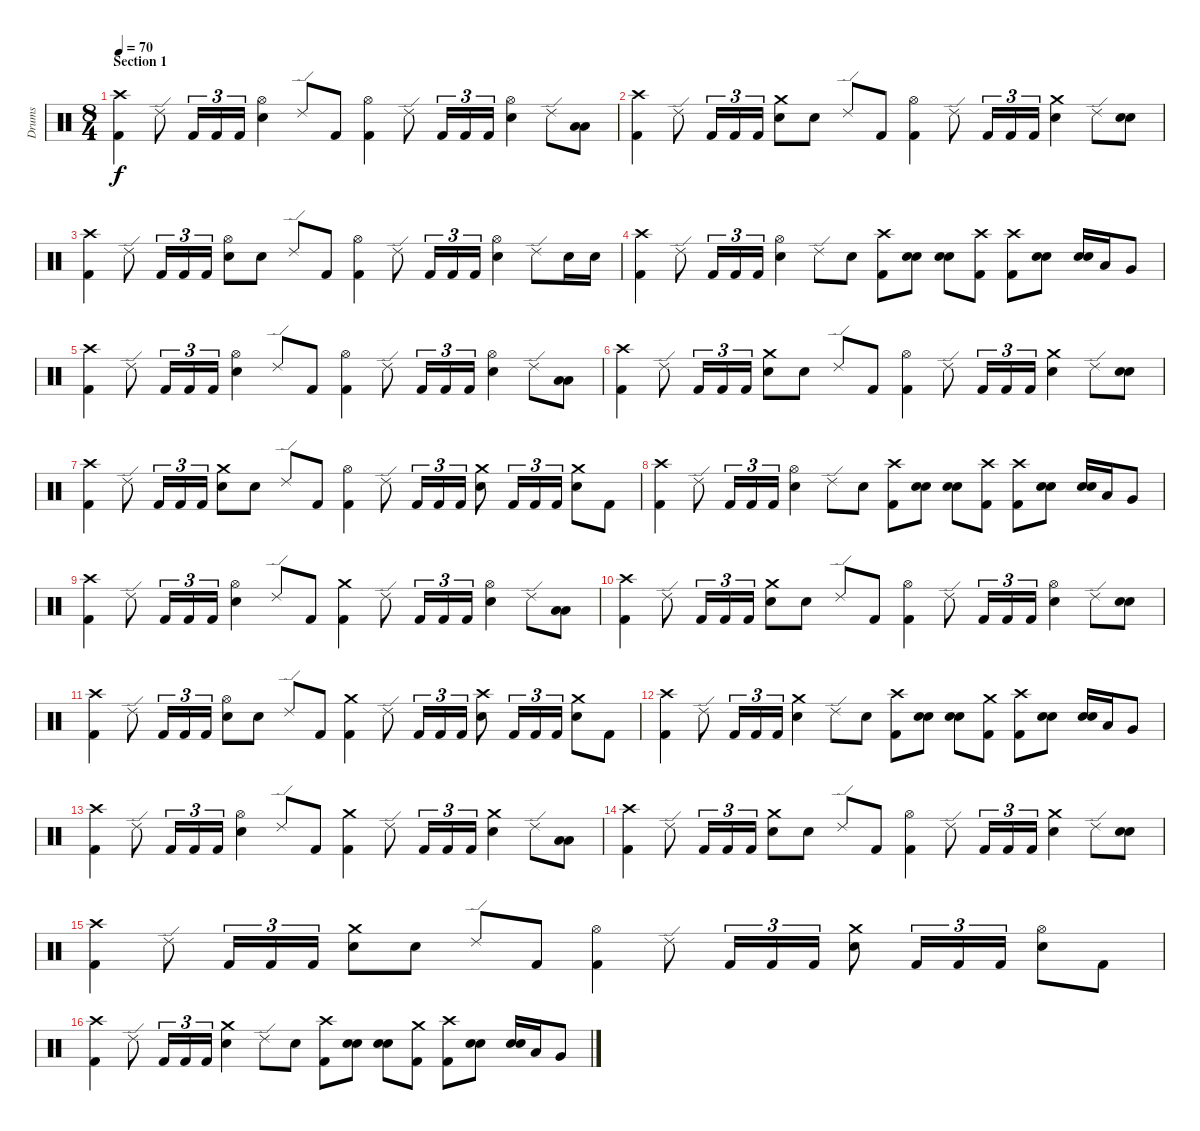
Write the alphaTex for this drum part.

\track ("Drums" "Drums") {instrument percussion}
\staff {score}
\articulation defaults
\ts (8 4)
\section ("" "Section 1")
\tempo 70
\clef neutral
\ks c
("Crash high (hit)" "Kick (hit) 2").4{dy f} "Ride (edge) 2".8 "Kick (hit) 2".16{tu (3 2)} "Kick (hit) 2".16{tu (3 2)} "Kick (hit) 2".16{tu (3 2)} ("Hi-Hat (open)" "Electric Snare (hit)").4 "Ride (edge) 2".8 "Kick (hit) 2".8 ("Hi-Hat (open)" "Kick (hit) 2").4 "Ride (edge) 2".8 "Kick (hit) 2".16{tu (3 2)} "Kick (hit) 2".16{tu (3 2)} "Kick (hit) 2".16{tu (3 2)} ("Hi-Hat (open)" "Electric Snare (hit)").4 "Ride (edge) 2".8 ("Low Tom (hit)" "Low Tom (hit)").8{bu 60} |
("Crash high (hit)" "Kick (hit) 2").4 "Ride (edge) 2".8 "Kick (hit) 2".16{tu (3 2)} "Kick (hit) 2".16{tu (3 2)} "Kick (hit) 2".16{tu (3 2)} ("Crash medium (hit)" "Electric Snare (hit)").8 "Electric Snare (hit)".8 "Ride (edge) 2".8 "Kick (hit) 2".8 ("Hi-Hat (open)" "Kick (hit) 2").4 "Ride (edge) 2".8 "Kick (hit) 2".16{tu (3 2)} "Kick (hit) 2".16{tu (3 2)} "Kick (hit) 2".16{tu (3 2)} ("Crash medium (hit)" "Electric Snare (hit)").4 "Ride (edge) 2".8 ("Electric Snare (hit)" "Electric Snare (hit)").8{bu 60} |
("Crash high (hit)" "Kick (hit) 2").4 "Ride (edge) 2".8 "Kick (hit) 2".16{tu (3 2)} "Kick (hit) 2".16{tu (3 2)} "Kick (hit) 2".16{tu (3 2)} ("Hi-Hat (open)" "Electric Snare (hit)").8 "Electric Snare (hit)".8 "Ride (edge) 2".8 "Kick (hit) 2".8 ("Hi-Hat (open)" "Kick (hit) 2").4 "Ride (edge) 2".8 "Kick (hit) 2".16{tu (3 2)} "Kick (hit) 2".16{tu (3 2)} "Kick (hit) 2".16{tu (3 2)} ("Hi-Hat (open)" "Electric Snare (hit)").4 "Ride (edge) 2".8 "Electric Snare (hit)".16 "Electric Snare (hit)".16 |
("Crash high (hit)" "Kick (hit) 2").4 "Ride (edge) 2".8 "Kick (hit) 2".16{tu (3 2)} "Kick (hit) 2".16{tu (3 2)} "Kick (hit) 2".16{tu (3 2)} ("Hi-Hat (open)" "Electric Snare (hit)").4 "Ride (edge) 2".8 "Electric Snare (hit)".8 ("Crash high (hit)" "Kick (hit) 2").8 ("Electric Snare (hit)" "Electric Snare (hit)").8{bu 60} ("Electric Snare (hit)" "Electric Snare (hit)").8{bu 60} ("Crash high (hit)" "Kick (hit) 2").8 ("Crash high (hit)" "Kick (hit) 2").8 ("Electric Snare (hit)" "Electric Snare (hit)").8{bu 60} ("Electric Snare (hit)" "Electric Snare (hit)").16{bu 60} "Low Tom (hit)".16 "Very Low Tom (hit)".8 |
("Crash high (hit)" "Kick (hit) 2").4 "Ride (edge) 2".8 "Kick (hit) 2".16{tu (3 2)} "Kick (hit) 2".16{tu (3 2)} "Kick (hit) 2".16{tu (3 2)} ("Hi-Hat (open)" "Electric Snare (hit)").4 "Ride (edge) 2".8 "Kick (hit) 2".8 ("Hi-Hat (open)" "Kick (hit) 2").4 "Ride (edge) 2".8 "Kick (hit) 2".16{tu (3 2)} "Kick (hit) 2".16{tu (3 2)} "Kick (hit) 2".16{tu (3 2)} ("Hi-Hat (open)" "Electric Snare (hit)").4 "Ride (edge) 2".8 ("Low Tom (hit)" "Low Tom (hit)").8{bu 60} |
("Crash high (hit)" "Kick (hit) 2").4 "Ride (edge) 2".8 "Kick (hit) 2".16{tu (3 2)} "Kick (hit) 2".16{tu (3 2)} "Kick (hit) 2".16{tu (3 2)} ("Crash medium (hit)" "Electric Snare (hit)").8 "Electric Snare (hit)".8 "Ride (edge) 2".8 "Kick (hit) 2".8 ("Hi-Hat (open)" "Kick (hit) 2").4 "Ride (edge) 2".8 "Kick (hit) 2".16{tu (3 2)} "Kick (hit) 2".16{tu (3 2)} "Kick (hit) 2".16{tu (3 2)} ("Crash medium (hit)" "Electric Snare (hit)").4 "Ride (edge) 2".8 ("Electric Snare (hit)" "Electric Snare (hit)").8{bu 60} |
("Crash high (hit)" "Kick (hit) 2").4 "Ride (edge) 2".8 "Kick (hit) 2".16{tu (3 2)} "Kick (hit) 2".16{tu (3 2)} "Kick (hit) 2".16{tu (3 2)} ("Crash medium (hit)" "Electric Snare (hit)").8 "Electric Snare (hit)".8 "Ride (edge) 2".8 "Kick (hit) 2".8 ("Hi-Hat (open)" "Kick (hit) 2").4 "Ride (edge) 2".8 "Kick (hit) 2".16{tu (3 2)} "Kick (hit) 2".16{tu (3 2)} "Kick (hit) 2".16{tu (3 2)} ("Crash medium (hit)" "Electric Snare (hit)").8 "Kick (hit) 2".16{tu (3 2)} "Kick (hit) 2".16{tu (3 2)} "Kick (hit) 2".16{tu (3 2)} ("Crash medium (hit)" "Electric Snare (hit)").8 "Kick (hit) 2".8 |
("Crash high (hit)" "Kick (hit) 2").4 "Ride (edge) 2".8 "Kick (hit) 2".16{tu (3 2)} "Kick (hit) 2".16{tu (3 2)} "Kick (hit) 2".16{tu (3 2)} ("Hi-Hat (open)" "Electric Snare (hit)").4 "Ride (edge) 2".8 "Electric Snare (hit)".8 ("Crash high (hit)" "Kick (hit) 2").8 ("Electric Snare (hit)" "Electric Snare (hit)").8{bu 60} ("Electric Snare (hit)" "Electric Snare (hit)").8{bu 60} ("Crash high (hit)" "Kick (hit) 2").8 ("Crash high (hit)" "Kick (hit) 2").8 ("Electric Snare (hit)" "Electric Snare (hit)").8{bu 60} ("Electric Snare (hit)" "Electric Snare (hit)").16{bu 60} "Low Tom (hit)".16 "Very Low Tom (hit)".8 |
("Crash high (hit)" "Kick (hit) 2").4 "Ride (edge) 2".8 "Kick (hit) 2".16{tu (3 2)} "Kick (hit) 2".16{tu (3 2)} "Kick (hit) 2".16{tu (3 2)} ("Hi-Hat (open)" "Electric Snare (hit)").4 "Ride (edge) 2".8 "Kick (hit) 2".8 ("Crash medium (hit)" "Kick (hit) 2").4 "Ride (edge) 2".8 "Kick (hit) 2".16{tu (3 2)} "Kick (hit) 2".16{tu (3 2)} "Kick (hit) 2".16{tu (3 2)} ("Hi-Hat (open)" "Electric Snare (hit)").4 "Ride (edge) 2".8 ("Low Tom (hit)" "Low Tom (hit)").8{bu 60} |
("Crash high (hit)" "Kick (hit) 2").4 "Ride (edge) 2".8 "Kick (hit) 2".16{tu (3 2)} "Kick (hit) 2".16{tu (3 2)} "Kick (hit) 2".16{tu (3 2)} ("Crash medium (hit)" "Electric Snare (hit)").8 "Electric Snare (hit)".8 "Ride (edge) 2".8 "Kick (hit) 2".8 ("Hi-Hat (open)" "Kick (hit) 2").4 "Ride (edge) 2".8 "Kick (hit) 2".16{tu (3 2)} "Kick (hit) 2".16{tu (3 2)} "Kick (hit) 2".16{tu (3 2)} ("Hi-Hat (open)" "Electric Snare (hit)").4 "Ride (edge) 2".8 ("Electric Snare (hit)" "Electric Snare (hit)").8{bu 60} |
("Crash high (hit)" "Kick (hit) 2").4 "Ride (edge) 2".8 "Kick (hit) 2".16{tu (3 2)} "Kick (hit) 2".16{tu (3 2)} "Kick (hit) 2".16{tu (3 2)} ("Hi-Hat (open)" "Electric Snare (hit)").8 "Electric Snare (hit)".8 "Ride (edge) 2".8 "Kick (hit) 2".8 ("Crash medium (hit)" "Kick (hit) 2").4 "Ride (edge) 2".8 "Kick (hit) 2".16{tu (3 2)} "Kick (hit) 2".16{tu (3 2)} "Kick (hit) 2".16{tu (3 2)} ("Crash high (hit)" "Electric Snare (hit)").8 "Kick (hit) 2".16{tu (3 2)} "Kick (hit) 2".16{tu (3 2)} "Kick (hit) 2".16{tu (3 2)} ("Crash medium (hit)" "Electric Snare (hit)").8 "Kick (hit) 2".8 |
("Crash high (hit)" "Kick (hit) 2").4 "Ride (edge) 2".8 "Kick (hit) 2".16{tu (3 2)} "Kick (hit) 2".16{tu (3 2)} "Kick (hit) 2".16{tu (3 2)} ("Crash medium (hit)" "Electric Snare (hit)").4 "Ride (edge) 2".8 "Electric Snare (hit)".8 ("Crash high (hit)" "Kick (hit) 2").8 ("Electric Snare (hit)" "Electric Snare (hit)").8{bu 60} ("Electric Snare (hit)" "Electric Snare (hit)").8{bu 60} ("Crash medium (hit)" "Kick (hit) 2").8 ("Crash high (hit)" "Kick (hit) 2").8 ("Electric Snare (hit)" "Electric Snare (hit)").8{bu 60} ("Electric Snare (hit)" "Electric Snare (hit)").16{bu 60} "Low Tom (hit)".16 "Very Low Tom (hit)".8 |
("Crash high (hit)" "Kick (hit) 2").4 "Ride (edge) 2".8 "Kick (hit) 2".16{tu (3 2)} "Kick (hit) 2".16{tu (3 2)} "Kick (hit) 2".16{tu (3 2)} ("Hi-Hat (open)" "Electric Snare (hit)").4 "Ride (edge) 2".8 "Kick (hit) 2".8 ("Crash medium (hit)" "Kick (hit) 2").4 "Ride (edge) 2".8 "Kick (hit) 2".16{tu (3 2)} "Kick (hit) 2".16{tu (3 2)} "Kick (hit) 2".16{tu (3 2)} ("Crash medium (hit)" "Electric Snare (hit)").4 "Ride (edge) 2".8 ("Low Tom (hit)" "Low Tom (hit)").8{bu 60} |
("Crash high (hit)" "Kick (hit) 2").4 "Ride (edge) 2".8 "Kick (hit) 2".16{tu (3 2)} "Kick (hit) 2".16{tu (3 2)} "Kick (hit) 2".16{tu (3 2)} ("Crash medium (hit)" "Electric Snare (hit)").8 "Electric Snare (hit)".8 "Ride (edge) 2".8 "Kick (hit) 2".8 ("Hi-Hat (open)" "Kick (hit) 2").4 "Ride (edge) 2".8 "Kick (hit) 2".16{tu (3 2)} "Kick (hit) 2".16{tu (3 2)} "Kick (hit) 2".16{tu (3 2)} ("Crash medium (hit)" "Electric Snare (hit)").4 "Ride (edge) 2".8 ("Electric Snare (hit)" "Electric Snare (hit)").8{bu 60} |
("Crash high (hit)" "Kick (hit) 2").4 "Ride (edge) 2".8 "Kick (hit) 2".16{tu (3 2)} "Kick (hit) 2".16{tu (3 2)} "Kick (hit) 2".16{tu (3 2)} ("Crash medium (hit)" "Electric Snare (hit)").8 "Electric Snare (hit)".8 "Ride (edge) 2".8 "Kick (hit) 2".8 ("Hi-Hat (open)" "Kick (hit) 2").4 "Ride (edge) 2".8 "Kick (hit) 2".16{tu (3 2)} "Kick (hit) 2".16{tu (3 2)} "Kick (hit) 2".16{tu (3 2)} ("Crash medium (hit)" "Electric Snare (hit)").8 "Kick (hit) 2".16{tu (3 2)} "Kick (hit) 2".16{tu (3 2)} "Kick (hit) 2".16{tu (3 2)} ("Hi-Hat (open)" "Electric Snare (hit)").8 "Kick (hit) 2".8 |
("Crash high (hit)" "Kick (hit) 2").4 "Ride (edge) 2".8 "Kick (hit) 2".16{tu (3 2)} "Kick (hit) 2".16{tu (3 2)} "Kick (hit) 2".16{tu (3 2)} ("Crash medium (hit)" "Electric Snare (hit)").4 "Ride (edge) 2".8 "Electric Snare (hit)".8 ("Crash high (hit)" "Kick (hit) 2").8 ("Electric Snare (hit)" "Electric Snare (hit)").8{bu 60} ("Electric Snare (hit)" "Electric Snare (hit)").8{bu 60} ("Crash medium (hit)" "Kick (hit) 2").8 ("Crash high (hit)" "Kick (hit) 2").8 ("Electric Snare (hit)" "Electric Snare (hit)").8{bu 60} ("Electric Snare (hit)" "Electric Snare (hit)").16{bu 60} "Low Tom (hit)".16 "Very Low Tom (hit)".8
